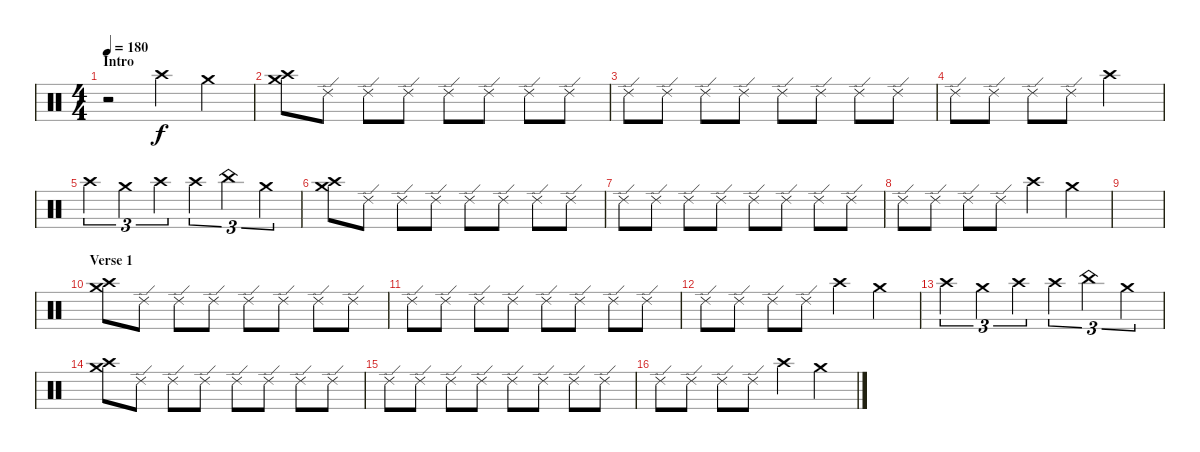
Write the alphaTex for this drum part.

\track "" {instrument percussion}
\staff {score}
\articulation defaults
\ts (4 4)
\section ("" "Intro")
\tempo 180
\clef neutral
\ks c
r.2{dy f} "Crash high (hit)".4 "Crash medium (hit)".4 |
("Crash medium (hit)" "Crash high (hit)").8 "Ride (edge) 2".8 "Ride (edge) 2".8 "Ride (edge) 2".8 "Ride (edge) 2".8 "Ride (edge) 2".8 "Ride (edge) 2".8 "Ride (edge) 2".8 |
"Ride (edge) 2".8 "Ride (edge) 2".8 "Ride (edge) 2".8 "Ride (edge) 2".8 "Ride (edge) 2".8 "Ride (edge) 2".8 "Ride (edge) 2".8 "Ride (edge) 2".8 |
"Ride (edge) 2".8 "Ride (edge) 2".8 "Ride (edge) 2".8 "Ride (edge) 2".8 "Crash high (hit)".2 |
"Crash high (hit)".4{tu (3 2)} "Crash medium (hit)".4{tu (3 2)} "Crash high (hit)".4{tu (3 2)} "Crash high (hit)".4{tu (3 2)} "China (hit)".4{tu (3 2)} "Crash medium (hit)".4{tu (3 2)} |
("Crash medium (hit)" "Crash high (hit)").8 "Ride (edge) 2".8 "Ride (edge) 2".8 "Ride (edge) 2".8 "Ride (edge) 2".8 "Ride (edge) 2".8 "Ride (edge) 2".8 "Ride (edge) 2".8 |
"Ride (edge) 2".8 "Ride (edge) 2".8 "Ride (edge) 2".8 "Ride (edge) 2".8 "Ride (edge) 2".8 "Ride (edge) 2".8 "Ride (edge) 2".8 "Ride (edge) 2".8 |
"Ride (edge) 2".8 "Ride (edge) 2".8 "Ride (edge) 2".8 "Ride (edge) 2".8 "Crash high (hit)".4 "Crash medium (hit)".4 |
|
\section ("" "Verse 1")
("Crash medium (hit)" "Crash high (hit)").8 "Ride (edge) 2".8 "Ride (edge) 2".8 "Ride (edge) 2".8 "Ride (edge) 2".8 "Ride (edge) 2".8 "Ride (edge) 2".8 "Ride (edge) 2".8 |
"Ride (edge) 2".8 "Ride (edge) 2".8 "Ride (edge) 2".8 "Ride (edge) 2".8 "Ride (edge) 2".8 "Ride (edge) 2".8 "Ride (edge) 2".8 "Ride (edge) 2".8 |
"Ride (edge) 2".8 "Ride (edge) 2".8 "Ride (edge) 2".8 "Ride (edge) 2".8 "Crash high (hit)".4 "Crash medium (hit)".4 |
"Crash high (hit)".4{tu (3 2)} "Crash medium (hit)".4{tu (3 2)} "Crash high (hit)".4{tu (3 2)} "Crash high (hit)".4{tu (3 2)} "China (hit)".4{tu (3 2)} "Crash medium (hit)".4{tu (3 2)} |
("Crash medium (hit)" "Crash high (hit)").8 "Ride (edge) 2".8 "Ride (edge) 2".8 "Ride (edge) 2".8 "Ride (edge) 2".8 "Ride (edge) 2".8 "Ride (edge) 2".8 "Ride (edge) 2".8 |
"Ride (edge) 2".8 "Ride (edge) 2".8 "Ride (edge) 2".8 "Ride (edge) 2".8 "Ride (edge) 2".8 "Ride (edge) 2".8 "Ride (edge) 2".8 "Ride (edge) 2".8 |
"Ride (edge) 2".8 "Ride (edge) 2".8 "Ride (edge) 2".8 "Ride (edge) 2".8 "Crash high (hit)".4 "Crash medium (hit)".4
